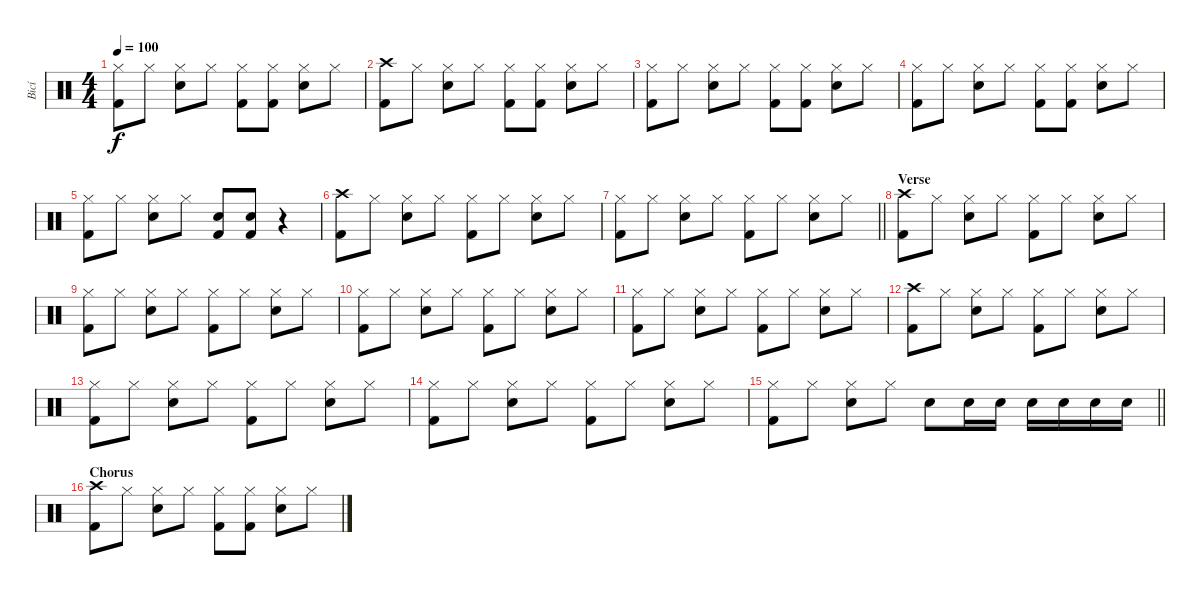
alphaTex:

\track ("Bicí" "Bicí") {instrument percussion}
\staff {score}
\articulation defaults
\ts (4 4)
\tempo 100
\clef neutral
\ks c
("Hi-Hat (closed)" "Kick (hit) 2").8{dy f} "Hi-Hat (closed)".8 ("Hi-Hat (closed)" "Electric Snare (hit)").8 "Hi-Hat (closed)".8 ("Hi-Hat (closed)" "Kick (hit) 2").8 ("Hi-Hat (closed)" "Kick (hit) 2").8 ("Hi-Hat (closed)" "Electric Snare (hit)").8 "Hi-Hat (closed)".8 |
("Crash high (hit)" "Kick (hit) 2").8 "Hi-Hat (closed)".8 ("Hi-Hat (closed)" "Electric Snare (hit)").8 "Hi-Hat (closed)".8 ("Hi-Hat (closed)" "Kick (hit) 2").8 ("Hi-Hat (closed)" "Kick (hit) 2").8 ("Hi-Hat (closed)" "Electric Snare (hit)").8 "Hi-Hat (closed)".8 |
("Hi-Hat (closed)" "Kick (hit) 2").8 "Hi-Hat (closed)".8 ("Hi-Hat (closed)" "Electric Snare (hit)").8 "Hi-Hat (closed)".8 ("Hi-Hat (closed)" "Kick (hit) 2").8 ("Hi-Hat (closed)" "Kick (hit) 2").8 ("Hi-Hat (closed)" "Electric Snare (hit)").8 "Hi-Hat (closed)".8 |
("Hi-Hat (closed)" "Kick (hit) 2").8 "Hi-Hat (closed)".8 ("Hi-Hat (closed)" "Electric Snare (hit)").8 "Hi-Hat (closed)".8 ("Hi-Hat (closed)" "Kick (hit) 2").8 ("Hi-Hat (closed)" "Kick (hit) 2").8 ("Hi-Hat (closed)" "Electric Snare (hit)").8 "Hi-Hat (closed)".8 |
("Hi-Hat (closed)" "Kick (hit) 2").8 "Hi-Hat (closed)".8 ("Hi-Hat (closed)" "Electric Snare (hit)").8 "Hi-Hat (closed)".8 ("Electric Snare (hit)" "Kick (hit) 2").8 ("Electric Snare (hit)" "Kick (hit) 2").8 r.4 |
("Crash high (hit)" "Kick (hit) 2").8 "Hi-Hat (closed)".8 ("Hi-Hat (closed)" "Electric Snare (hit)").8 "Hi-Hat (closed)".8 ("Hi-Hat (closed)" "Kick (hit) 2").8 "Hi-Hat (closed)".8 ("Hi-Hat (closed)" "Electric Snare (hit)").8 "Hi-Hat (closed)".8 |
\barLineRight lightlight
("Hi-Hat (closed)" "Kick (hit) 2").8 "Hi-Hat (closed)".8 ("Hi-Hat (closed)" "Electric Snare (hit)").8 "Hi-Hat (closed)".8 ("Hi-Hat (closed)" "Kick (hit) 2").8 "Hi-Hat (closed)".8 ("Hi-Hat (closed)" "Electric Snare (hit)").8 "Hi-Hat (closed)".8 |
\section ("" "Verse")
("Crash high (hit)" "Kick (hit) 2").8 "Hi-Hat (closed)".8 ("Hi-Hat (closed)" "Electric Snare (hit)").8 "Hi-Hat (closed)".8 ("Hi-Hat (closed)" "Kick (hit) 2").8 "Hi-Hat (closed)".8 ("Hi-Hat (closed)" "Electric Snare (hit)").8 "Hi-Hat (closed)".8 |
("Hi-Hat (closed)" "Kick (hit) 2").8 "Hi-Hat (closed)".8 ("Hi-Hat (closed)" "Electric Snare (hit)").8 "Hi-Hat (closed)".8 ("Hi-Hat (closed)" "Kick (hit) 2").8 "Hi-Hat (closed)".8 ("Hi-Hat (closed)" "Electric Snare (hit)").8 "Hi-Hat (closed)".8 |
("Hi-Hat (closed)" "Kick (hit) 2").8 "Hi-Hat (closed)".8 ("Hi-Hat (closed)" "Electric Snare (hit)").8 "Hi-Hat (closed)".8 ("Hi-Hat (closed)" "Kick (hit) 2").8 "Hi-Hat (closed)".8 ("Hi-Hat (closed)" "Electric Snare (hit)").8 "Hi-Hat (closed)".8 |
("Hi-Hat (closed)" "Kick (hit) 2").8 "Hi-Hat (closed)".8 ("Hi-Hat (closed)" "Electric Snare (hit)").8 "Hi-Hat (closed)".8 ("Hi-Hat (closed)" "Kick (hit) 2").8 "Hi-Hat (closed)".8 ("Hi-Hat (closed)" "Electric Snare (hit)").8 "Hi-Hat (closed)".8 |
("Crash high (hit)" "Kick (hit) 2").8 "Hi-Hat (closed)".8 ("Hi-Hat (closed)" "Electric Snare (hit)").8 "Hi-Hat (closed)".8 ("Hi-Hat (closed)" "Kick (hit) 2").8 "Hi-Hat (closed)".8 ("Hi-Hat (closed)" "Electric Snare (hit)").8 "Hi-Hat (closed)".8 |
("Hi-Hat (closed)" "Kick (hit) 2").8 "Hi-Hat (closed)".8 ("Hi-Hat (closed)" "Electric Snare (hit)").8 "Hi-Hat (closed)".8 ("Hi-Hat (closed)" "Kick (hit) 2").8 "Hi-Hat (closed)".8 ("Hi-Hat (closed)" "Electric Snare (hit)").8 "Hi-Hat (closed)".8 |
("Hi-Hat (closed)" "Kick (hit) 2").8 "Hi-Hat (closed)".8 ("Hi-Hat (closed)" "Electric Snare (hit)").8 "Hi-Hat (closed)".8 ("Hi-Hat (closed)" "Kick (hit) 2").8 "Hi-Hat (closed)".8 ("Hi-Hat (closed)" "Electric Snare (hit)").8 "Hi-Hat (closed)".8 |
\barLineRight lightlight
("Hi-Hat (closed)" "Kick (hit) 2").8 "Hi-Hat (closed)".8 ("Hi-Hat (closed)" "Electric Snare (hit)").8 "Hi-Hat (closed)".8 "Electric Snare (hit)".8 "Electric Snare (hit)".16 "Electric Snare (hit)".16 "Electric Snare (hit)".16 "Electric Snare (hit)".16 "Electric Snare (hit)".16 "Electric Snare (hit)".16 |
\section ("" "Chorus")
("Crash high (hit)" "Kick (hit) 2").8 "Hi-Hat (closed)".8 ("Hi-Hat (closed)" "Electric Snare (hit)").8 "Hi-Hat (closed)".8 ("Hi-Hat (closed)" "Kick (hit) 2").8 ("Hi-Hat (closed)" "Kick (hit) 2").8 ("Hi-Hat (closed)" "Electric Snare (hit)").8 "Hi-Hat (closed)".8
